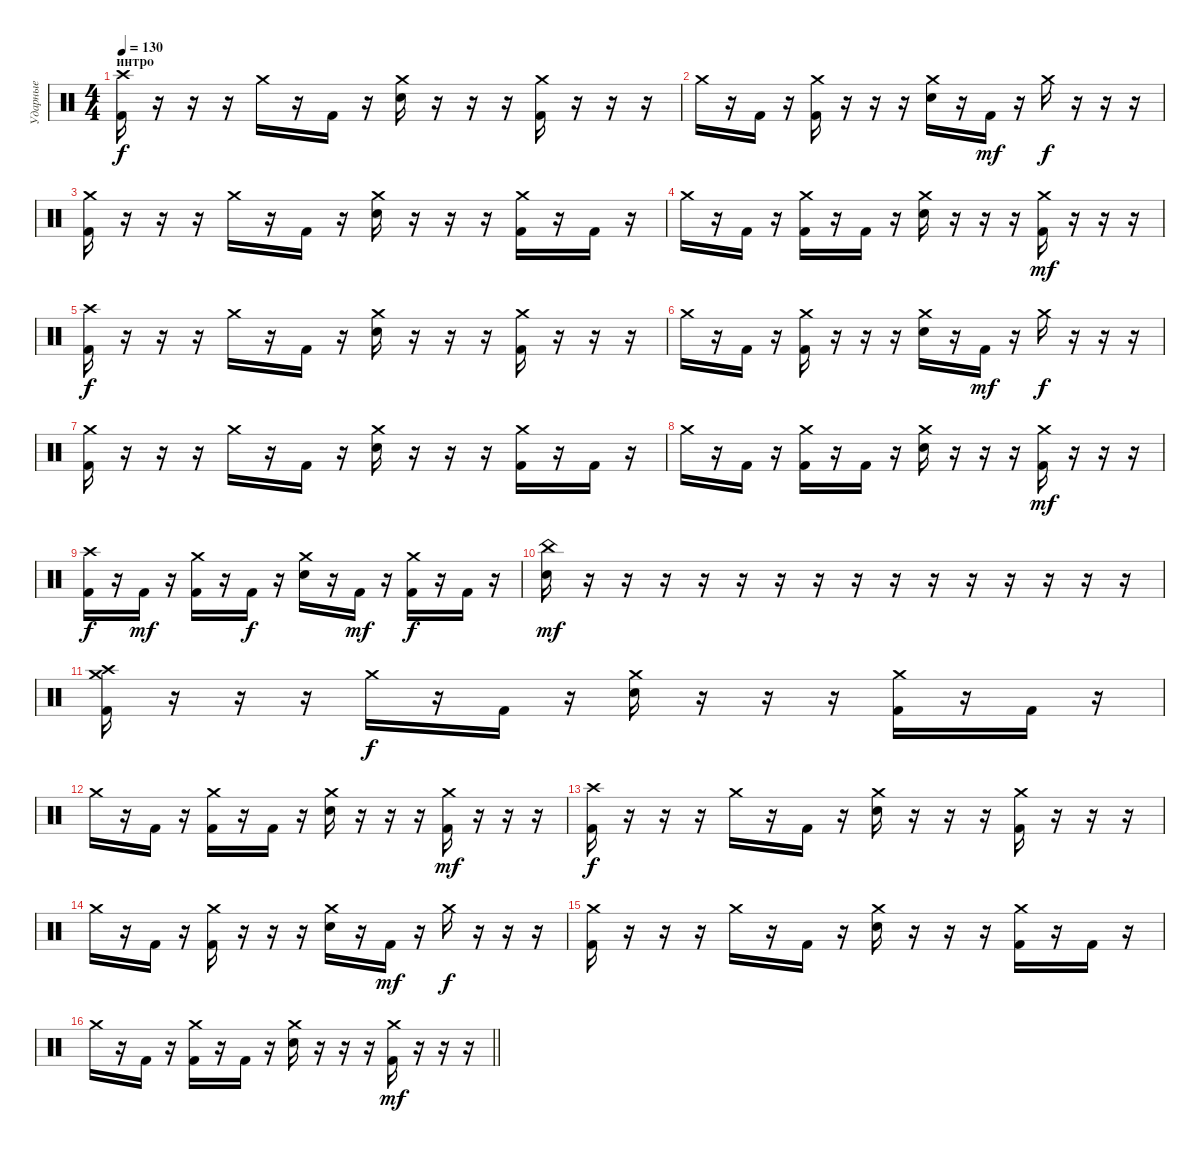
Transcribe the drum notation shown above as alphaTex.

\track ("Ударные" "Ударные") {instrument percussion}
\staff {score}
\articulation defaults
\ts (4 4)
\section ("" "интро")
\tempo 130
\clef neutral
\ks c
("Crash high (hit)" "Kick (hit) 2").16{dy f} r.16 r.16 r.16 "Crash medium (hit)".16 r.16 "Kick (hit) 2".16 r.16 ("Crash medium (hit)" "Electric Snare (hit)").16 r.16 r.16 r.16 ("Crash medium (hit)" "Kick (hit) 2").16 r.16 r.16 r.16 |
"Crash medium (hit)".16 r.16 "Kick (hit) 2".16 r.16 ("Crash medium (hit)" "Kick (hit) 2").16 r.16 r.16 r.16 ("Crash medium (hit)" "Electric Snare (hit)").16 r.16 "Kick (hit) 2".16{dy mf} r.16 "Crash medium (hit)".16{dy f} r.16 r.16 r.16 |
("Crash medium (hit)" "Kick (hit) 2").16 r.16 r.16 r.16 "Crash medium (hit)".16 r.16 "Kick (hit) 2".16 r.16 ("Crash medium (hit)" "Electric Snare (hit)").16 r.16 r.16 r.16 ("Crash medium (hit)" "Kick (hit) 2").16 r.16 "Kick (hit) 2".16 r.16 |
"Crash medium (hit)".16 r.16 "Kick (hit) 2".16 r.16 ("Crash medium (hit)" "Kick (hit) 2").16 r.16 "Kick (hit) 2".16 r.16 ("Crash medium (hit)" "Electric Snare (hit)").16 r.16 r.16 r.16 ("Crash medium (hit)" "Kick (hit) 2").16{dy mf} r.16 r.16 r.16 |
("Crash high (hit)" "Kick (hit) 2").16{dy f} r.16 r.16 r.16 "Crash medium (hit)".16 r.16 "Kick (hit) 2".16 r.16 ("Crash medium (hit)" "Electric Snare (hit)").16 r.16 r.16 r.16 ("Crash medium (hit)" "Kick (hit) 2").16 r.16 r.16 r.16 |
"Crash medium (hit)".16 r.16 "Kick (hit) 2".16 r.16 ("Crash medium (hit)" "Kick (hit) 2").16 r.16 r.16 r.16 ("Crash medium (hit)" "Electric Snare (hit)").16 r.16 "Kick (hit) 2".16{dy mf} r.16 "Crash medium (hit)".16{dy f} r.16 r.16 r.16 |
("Crash medium (hit)" "Kick (hit) 2").16 r.16 r.16 r.16 "Crash medium (hit)".16 r.16 "Kick (hit) 2".16 r.16 ("Crash medium (hit)" "Electric Snare (hit)").16 r.16 r.16 r.16 ("Crash medium (hit)" "Kick (hit) 2").16 r.16 "Kick (hit) 2".16 r.16 |
"Crash medium (hit)".16 r.16 "Kick (hit) 2".16 r.16 ("Crash medium (hit)" "Kick (hit) 2").16 r.16 "Kick (hit) 2".16 r.16 ("Crash medium (hit)" "Electric Snare (hit)").16 r.16 r.16 r.16 ("Crash medium (hit)" "Kick (hit) 2").16{dy mf} r.16 r.16 r.16 |
("Crash high (hit)" "Kick (hit) 2").16{dy f} r.16 "Kick (hit) 2".16{dy mf} r.16 ("Crash medium (hit)" "Kick (hit) 2").16 r.16 "Kick (hit) 2".16{dy f} r.16 ("Crash medium (hit)" "Electric Snare (hit)").16 r.16 "Kick (hit) 2".16{dy mf} r.16 ("Crash medium (hit)" "Kick (hit) 2").16{dy f} r.16 "Kick (hit) 2".16 r.16 |
("China (hit)" "Electric Snare (hit)").16{dy mf} r.16 r.16 r.16 r.16 r.16 r.16 r.16 r.16 r.16 r.16 r.16 r.16 r.16 r.16 r.16 |
("Crash high (hit)" "Crash medium (hit)" "Kick (hit) 2").16 r.16 r.16 r.16 "Crash medium (hit)".16{dy f} r.16 "Kick (hit) 2".16 r.16 ("Crash medium (hit)" "Electric Snare (hit)").16 r.16 r.16 r.16 ("Crash medium (hit)" "Kick (hit) 2").16 r.16 "Kick (hit) 2".16 r.16 |
"Crash medium (hit)".16 r.16 "Kick (hit) 2".16 r.16 ("Crash medium (hit)" "Kick (hit) 2").16 r.16 "Kick (hit) 2".16 r.16 ("Crash medium (hit)" "Electric Snare (hit)").16 r.16 r.16 r.16 ("Crash medium (hit)" "Kick (hit) 2").16{dy mf} r.16 r.16 r.16 |
("Crash high (hit)" "Kick (hit) 2").16{dy f} r.16 r.16 r.16 "Crash medium (hit)".16 r.16 "Kick (hit) 2".16 r.16 ("Crash medium (hit)" "Electric Snare (hit)").16 r.16 r.16 r.16 ("Crash medium (hit)" "Kick (hit) 2").16 r.16 r.16 r.16 |
"Crash medium (hit)".16 r.16 "Kick (hit) 2".16 r.16 ("Crash medium (hit)" "Kick (hit) 2").16 r.16 r.16 r.16 ("Crash medium (hit)" "Electric Snare (hit)").16 r.16 "Kick (hit) 2".16{dy mf} r.16 "Crash medium (hit)".16{dy f} r.16 r.16 r.16 |
("Crash medium (hit)" "Kick (hit) 2").16 r.16 r.16 r.16 "Crash medium (hit)".16 r.16 "Kick (hit) 2".16 r.16 ("Crash medium (hit)" "Electric Snare (hit)").16 r.16 r.16 r.16 ("Crash medium (hit)" "Kick (hit) 2").16 r.16 "Kick (hit) 2".16 r.16 |
\barLineRight lightlight "Crash medium (hit)".16
r.16 "Kick (hit) 2".16 r.16 ("Crash medium (hit)" "Kick (hit) 2").16 r.16 "Kick (hit) 2".16 r.16 ("Crash medium (hit)" "Electric Snare (hit)").16 r.16 r.16 r.16 ("Crash medium (hit)" "Kick (hit) 2").16{dy mf} r.16 r.16 r.16
